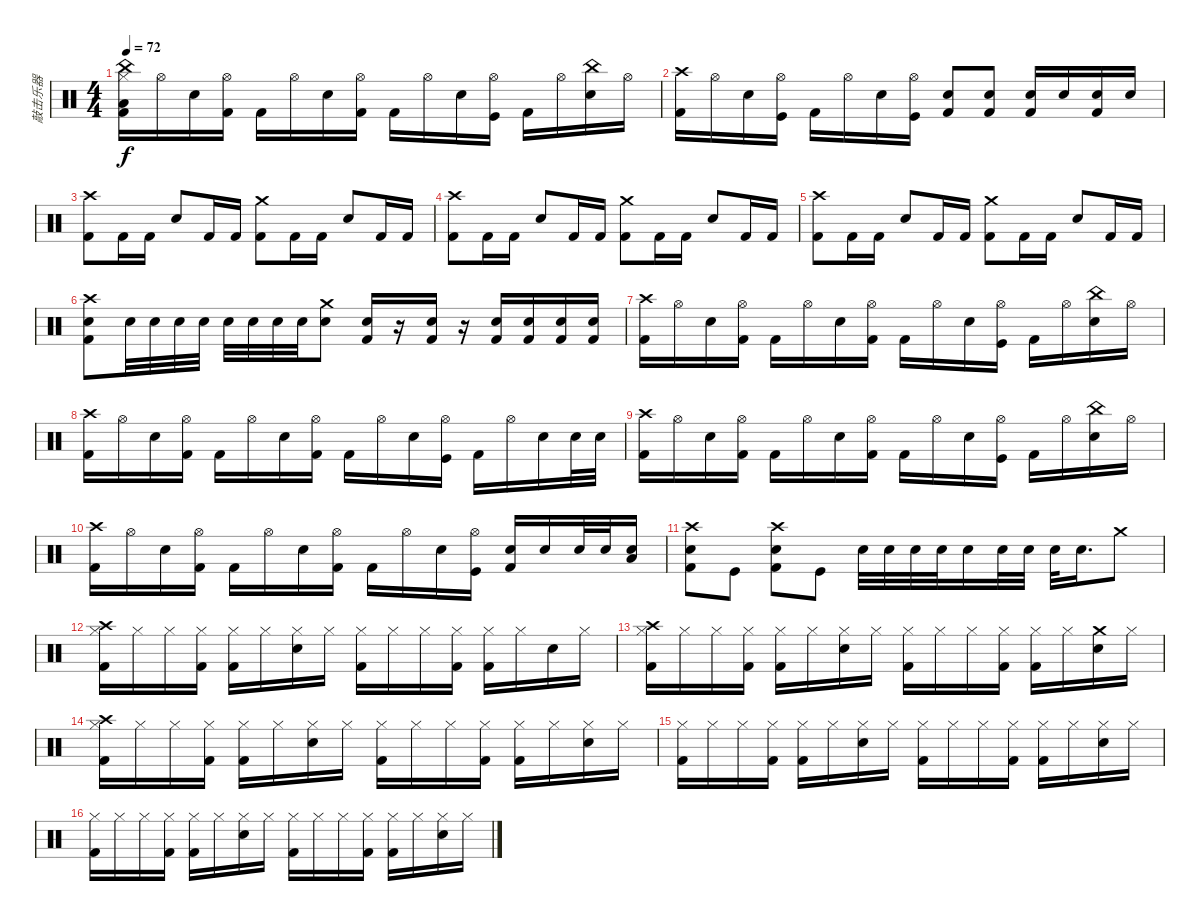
\track ("敲击乐器" "敲击乐器") {instrument percussion}
\staff {score}
\articulation defaults
\ts (4 4)
\tempo 72
\clef neutral
\ks c
("Low Floor Tom (hit)" "China (hit)" "Hi-Hat (closed)" "Kick (hit) 2").16{dy f} "Hi-Hat (open)".16 "Snare (hit) 2".16 ("Hi-Hat (open)" "Kick (hit) 2").16 "Kick (hit) 2".16 "Hi-Hat (open)".16 "Snare (hit) 2".16 ("Hi-Hat (open)" "Kick (hit) 2").16 "Kick (hit) 2".16 "Hi-Hat (open)".16 "Snare (hit) 2".16 ("Hi-Hat (open)" "Kick (hit)").16 "Kick (hit) 2".16 "Hi-Hat (open)".16 ("China (hit)" "Snare (hit) 2").16 "Hi-Hat (open)".16 |
("Crash high (hit)" "Kick (hit) 2").16 "Hi-Hat (open)".16 "Snare (hit) 2".16 ("Hi-Hat (open)" "Kick (hit)").16 "Kick (hit) 2".16 "Hi-Hat (open)".16 "Snare (hit) 2".16 ("Hi-Hat (open)" "Kick (hit)").16 ("Snare (hit) 2" "Kick (hit) 2").8 ("Snare (hit) 2" "Kick (hit) 2").8 ("Snare (hit) 2" "Kick (hit) 2").16 "Snare (hit) 2".16 ("Snare (hit) 2" "Kick (hit) 2").16 "Snare (hit) 2".16 |
("Crash high (hit)" "Kick (hit) 2").8 "Kick (hit) 2".16 "Kick (hit) 2".16 "Snare (hit) 2".8 "Kick (hit) 2".16 "Kick (hit) 2".16 ("Crash medium (hit)" "Kick (hit) 2").8 "Kick (hit) 2".16 "Kick (hit) 2".16 "Snare (hit) 2".8 "Kick (hit) 2".16 "Kick (hit) 2".16 |
("Crash high (hit)" "Kick (hit) 2").8 "Kick (hit) 2".16 "Kick (hit) 2".16 "Snare (hit) 2".8 "Kick (hit) 2".16 "Kick (hit) 2".16 ("Crash medium (hit)" "Kick (hit) 2").8 "Kick (hit) 2".16 "Kick (hit) 2".16 "Snare (hit) 2".8 "Kick (hit) 2".16 "Kick (hit) 2".16 |
("Crash high (hit)" "Kick (hit) 2").8 "Kick (hit) 2".16 "Kick (hit) 2".16 "Snare (hit) 2".8 "Kick (hit) 2".16 "Kick (hit) 2".16 ("Crash medium (hit)" "Kick (hit) 2").8 "Kick (hit) 2".16 "Kick (hit) 2".16 "Snare (hit) 2".8 "Kick (hit) 2".16 "Kick (hit) 2".16 |
("Crash high (hit)" "Snare (hit) 2" "Kick (hit) 2").8 "Snare (hit) 2".32{volume 8} "Snare (hit) 2".32{volume 15} "Snare (hit) 2".32 "Snare (hit) 2".32 "Snare (hit) 2".32 "Snare (hit) 2".32 "Snare (hit) 2".32 "Snare (hit) 2".32 ("Crash medium (hit)" "Snare (hit) 2").8 ("Snare (hit) 2" "Kick (hit) 2").16 r.16 ("Snare (hit) 2" "Kick (hit) 2").16 r.16 ("Snare (hit) 2" "Kick (hit) 2").16 ("Snare (hit) 2" "Kick (hit) 2").16 ("Snare (hit) 2" "Kick (hit) 2").16 ("Snare (hit) 2" "Kick (hit) 2").16 |
("Crash high (hit)" "Kick (hit) 2").16 "Hi-Hat (open)".16 "Snare (hit) 2".16 ("Hi-Hat (open)" "Kick (hit) 2").16 "Kick (hit) 2".16 "Hi-Hat (open)".16 "Snare (hit) 2".16 ("Hi-Hat (open)" "Kick (hit) 2").16 "Kick (hit) 2".16 "Hi-Hat (open)".16 "Snare (hit) 2".16 ("Hi-Hat (open)" "Kick (hit)").16 "Kick (hit) 2".16 "Hi-Hat (open)".16 ("China (hit)" "Snare (hit) 2").16 "Hi-Hat (open)".16 |
("Crash high (hit)" "Kick (hit) 2").16 "Hi-Hat (open)".16 "Snare (hit) 2".16 ("Hi-Hat (open)" "Kick (hit) 2").16 "Kick (hit) 2".16 "Hi-Hat (open)".16 "Snare (hit) 2".16 ("Hi-Hat (open)" "Kick (hit) 2").16 "Kick (hit) 2".16 "Hi-Hat (open)".16 "Snare (hit) 2".16 ("Hi-Hat (open)" "Kick (hit)").16 "Kick (hit) 2".16 "Hi-Hat (open)".16 "Snare (hit) 2".16 "Snare (hit) 2".32 "Snare (hit) 2".32 |
("Crash high (hit)" "Kick (hit) 2").16 "Hi-Hat (open)".16 "Snare (hit) 2".16 ("Hi-Hat (open)" "Kick (hit) 2").16 "Kick (hit) 2".16 "Hi-Hat (open)".16 "Snare (hit) 2".16 ("Hi-Hat (open)" "Kick (hit) 2").16 "Kick (hit) 2".16 "Hi-Hat (open)".16 "Snare (hit) 2".16 ("Hi-Hat (open)" "Kick (hit)").16 "Kick (hit) 2".16 "Hi-Hat (open)".16 ("China (hit)" "Snare (hit) 2").16 "Hi-Hat (open)".16 |
("Crash high (hit)" "Kick (hit) 2").16 "Hi-Hat (open)".16 "Snare (hit) 2".16 ("Hi-Hat (open)" "Kick (hit) 2").16 "Kick (hit) 2".16 "Hi-Hat (open)".16 "Snare (hit) 2".16 ("Hi-Hat (open)" "Kick (hit) 2").16 "Kick (hit) 2".16 "Hi-Hat (open)".16 "Snare (hit) 2".16 ("Hi-Hat (open)" "Kick (hit)").16 ("Snare (hit) 2" "Kick (hit) 2").16 "Snare (hit) 2".16 "Snare (hit) 2".32 "Snare (hit) 2".32 ("Snare (hit) 2" "Low Floor Tom (hit)").16 |
("Crash high (hit)" "Snare (hit) 2" "Kick (hit) 2").8 "Kick (hit)".8 ("Crash high (hit)" "Snare (hit) 2" "Kick (hit) 2").8 "Kick (hit)".8 "Snare (hit) 2".32 "Snare (hit) 2".32 "Snare (hit) 2".32 "Snare (hit) 2".32 "Snare (hit) 2".16 "Snare (hit) 2".32 "Snare (hit) 2".32 "Snare (hit) 2".32 "Snare (hit) 2".16{d} "Crash medium (hit)".8 |
("Crash high (hit)" "Hi-Hat (closed)" "Kick (hit) 2").16 "Hi-Hat (closed)".16 "Hi-Hat (closed)".16 ("Hi-Hat (closed)" "Kick (hit) 2").16 ("Hi-Hat (closed)" "Kick (hit) 2").16 "Hi-Hat (closed)".16 ("Hi-Hat (closed)" "Snare (hit) 2").16 "Hi-Hat (closed)".16 ("Hi-Hat (closed)" "Kick (hit) 2").16 "Hi-Hat (closed)".16 "Hi-Hat (closed)".16 ("Hi-Hat (closed)" "Kick (hit) 2").16 ("Hi-Hat (closed)" "Kick (hit) 2").16 "Hi-Hat (closed)".16 "Snare (hit) 2".16 "Hi-Hat (closed)".16 |
("Crash high (hit)" "Hi-Hat (closed)" "Kick (hit) 2").16 "Hi-Hat (closed)".16 "Hi-Hat (closed)".16 ("Hi-Hat (closed)" "Kick (hit) 2").16 ("Hi-Hat (closed)" "Kick (hit) 2").16 "Hi-Hat (closed)".16 ("Hi-Hat (closed)" "Snare (hit) 2").16 "Hi-Hat (closed)".16 ("Hi-Hat (closed)" "Kick (hit) 2").16 "Hi-Hat (closed)".16 "Hi-Hat (closed)".16 ("Hi-Hat (closed)" "Kick (hit) 2").16 ("Hi-Hat (closed)" "Kick (hit) 2").16 "Hi-Hat (closed)".16 ("Crash medium (hit)" "Snare (hit) 2").16 "Hi-Hat (closed)".16 |
("Crash high (hit)" "Hi-Hat (closed)" "Kick (hit) 2").16 "Hi-Hat (closed)".16 "Hi-Hat (closed)".16 ("Hi-Hat (closed)" "Kick (hit) 2").16 ("Hi-Hat (closed)" "Kick (hit) 2").16 "Hi-Hat (closed)".16 ("Hi-Hat (closed)" "Snare (hit) 2").16 "Hi-Hat (closed)".16 ("Hi-Hat (closed)" "Kick (hit) 2").16 "Hi-Hat (closed)".16 "Hi-Hat (closed)".16 ("Hi-Hat (closed)" "Kick (hit) 2").16 ("Hi-Hat (closed)" "Kick (hit) 2").16 "Hi-Hat (closed)".16 ("Hi-Hat (closed)" "Snare (hit) 2").16 "Hi-Hat (closed)".16 |
("Hi-Hat (closed)" "Kick (hit) 2").16 "Hi-Hat (closed)".16 "Hi-Hat (closed)".16 ("Hi-Hat (closed)" "Kick (hit) 2").16 ("Hi-Hat (closed)" "Kick (hit) 2").16 "Hi-Hat (closed)".16 ("Hi-Hat (closed)" "Snare (hit) 2").16 "Hi-Hat (closed)".16 ("Hi-Hat (closed)" "Kick (hit) 2").16 "Hi-Hat (closed)".16 "Hi-Hat (closed)".16 ("Hi-Hat (closed)" "Kick (hit) 2").16 ("Hi-Hat (closed)" "Kick (hit) 2").16 "Hi-Hat (closed)".16 ("Hi-Hat (closed)" "Snare (hit) 2").16 "Hi-Hat (closed)".16 |
("Hi-Hat (closed)" "Kick (hit) 2").16 "Hi-Hat (closed)".16 "Hi-Hat (closed)".16 ("Hi-Hat (closed)" "Kick (hit) 2").16 ("Hi-Hat (closed)" "Kick (hit) 2").16 "Hi-Hat (closed)".16 ("Hi-Hat (closed)" "Snare (hit) 2").16 "Hi-Hat (closed)".16 ("Hi-Hat (closed)" "Kick (hit) 2").16 "Hi-Hat (closed)".16 "Hi-Hat (closed)".16 ("Hi-Hat (closed)" "Kick (hit) 2").16 ("Hi-Hat (closed)" "Kick (hit) 2").16 "Hi-Hat (closed)".16 ("Hi-Hat (closed)" "Snare (hit) 2").16 "Hi-Hat (closed)".16
